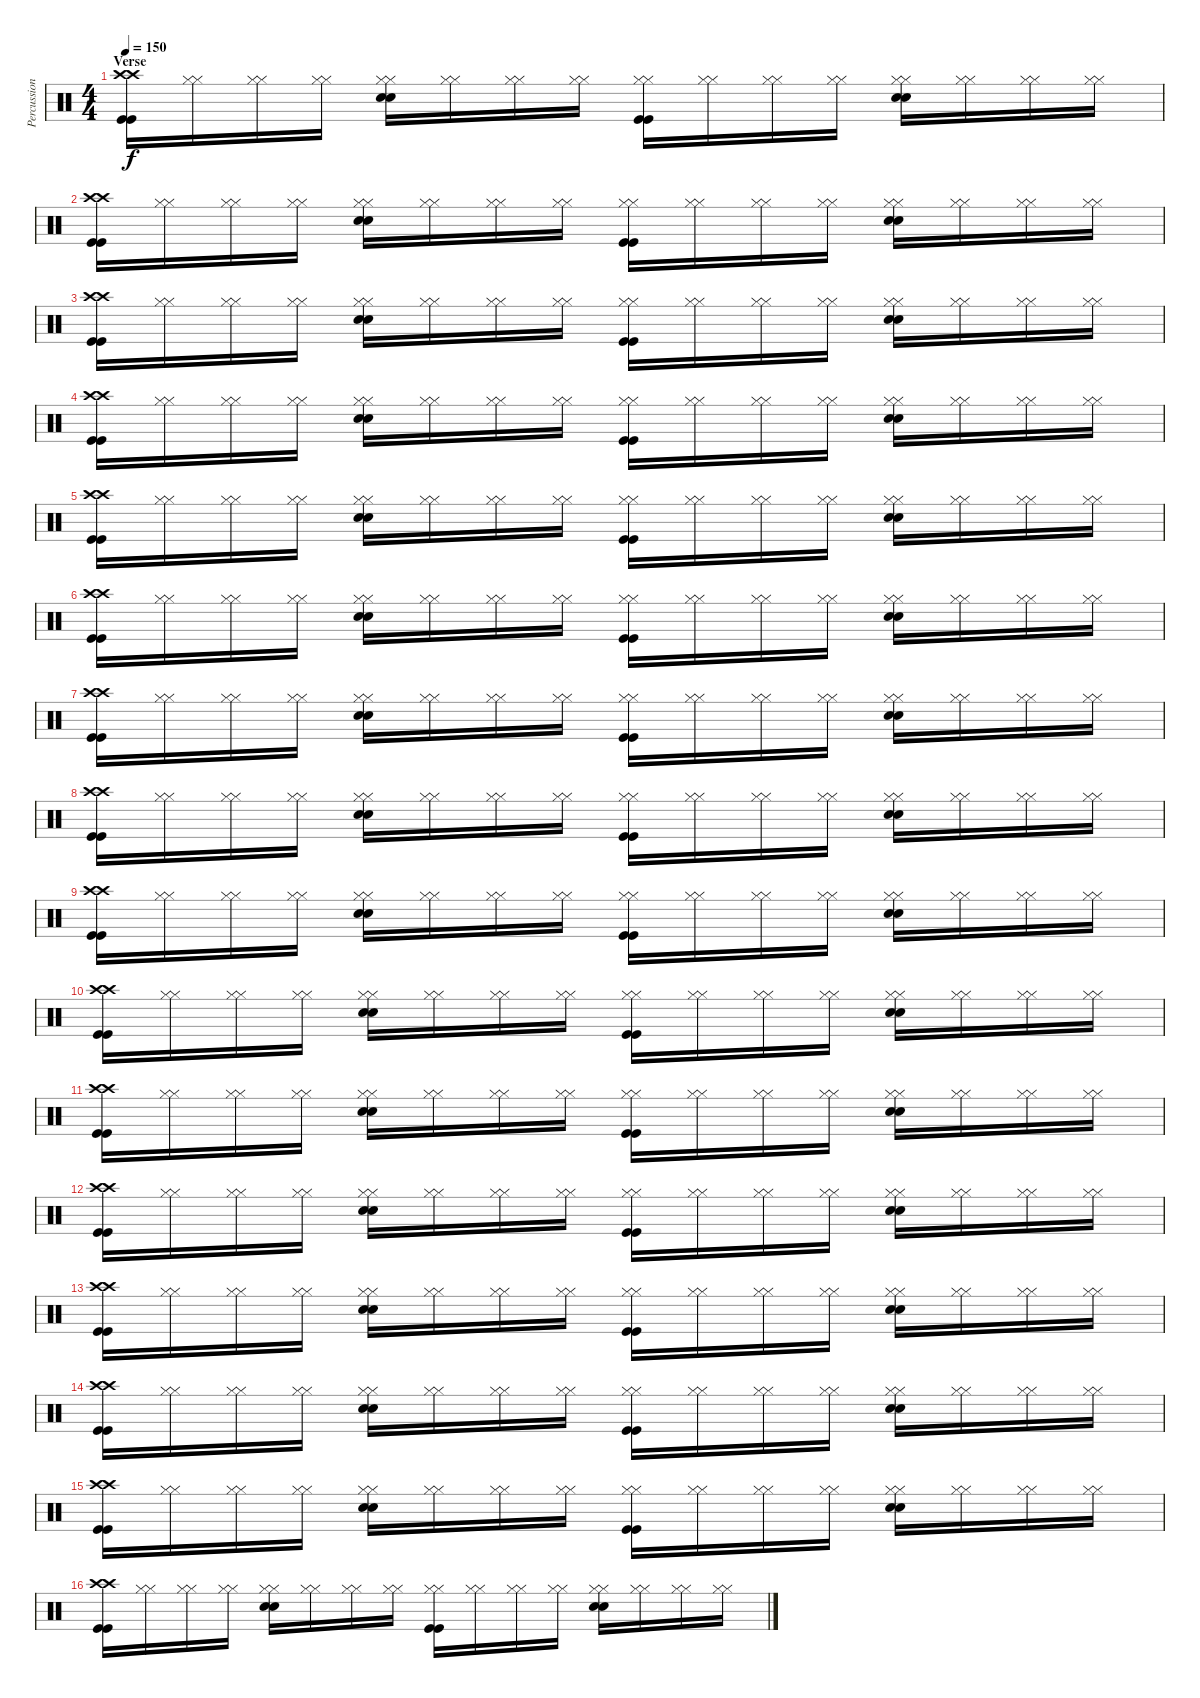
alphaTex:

\track ("Percussion" "Percussion") {instrument percussion bank 129}
\staff
\articulation defaults
\ts (4 4)
\section ("" "Verse")
\tempo 150
\clef neutral
\ks c
("Crash high (hit)" "Crash high (hit)" "Kick (hit)" "Kick (hit)").16{dy f} ("Hi-Hat (closed)" "Hi-Hat (closed)").16 ("Hi-Hat (closed)" "Hi-Hat (closed)").16 ("Hi-Hat (closed)" "Hi-Hat (closed)").16 ("Hi-Hat (closed)" "Hi-Hat (closed)" "Snare (hit) 2" "Snare (hit) 2").16 ("Hi-Hat (closed)" "Hi-Hat (closed)").16 ("Hi-Hat (closed)" "Hi-Hat (closed)").16 ("Hi-Hat (closed)" "Hi-Hat (closed)").16 ("Hi-Hat (closed)" "Hi-Hat (closed)" "Kick (hit)" "Kick (hit)").16 ("Hi-Hat (closed)" "Hi-Hat (closed)").16 ("Hi-Hat (closed)" "Hi-Hat (closed)").16 ("Hi-Hat (closed)" "Hi-Hat (closed)").16 ("Hi-Hat (closed)" "Hi-Hat (closed)" "Snare (hit) 2" "Snare (hit) 2").16 ("Hi-Hat (closed)" "Hi-Hat (closed)").16 ("Hi-Hat (closed)" "Hi-Hat (closed)").16 ("Hi-Hat (closed)" "Hi-Hat (closed)").16 |
("Crash high (hit)" "Crash high (hit)" "Kick (hit)" "Kick (hit)").16 ("Hi-Hat (closed)" "Hi-Hat (closed)").16 ("Hi-Hat (closed)" "Hi-Hat (closed)").16 ("Hi-Hat (closed)" "Hi-Hat (closed)").16 ("Hi-Hat (closed)" "Hi-Hat (closed)" "Snare (hit) 2" "Snare (hit) 2").16 ("Hi-Hat (closed)" "Hi-Hat (closed)").16 ("Hi-Hat (closed)" "Hi-Hat (closed)").16 ("Hi-Hat (closed)" "Hi-Hat (closed)").16 ("Hi-Hat (closed)" "Hi-Hat (closed)" "Kick (hit)" "Kick (hit)").16 ("Hi-Hat (closed)" "Hi-Hat (closed)").16 ("Hi-Hat (closed)" "Hi-Hat (closed)").16 ("Hi-Hat (closed)" "Hi-Hat (closed)").16 ("Hi-Hat (closed)" "Hi-Hat (closed)" "Snare (hit) 2" "Snare (hit) 2").16 ("Hi-Hat (closed)" "Hi-Hat (closed)").16 ("Hi-Hat (closed)" "Hi-Hat (closed)").16 ("Hi-Hat (closed)" "Hi-Hat (closed)").16 |
("Crash high (hit)" "Crash high (hit)" "Kick (hit)" "Kick (hit)").16 ("Hi-Hat (closed)" "Hi-Hat (closed)").16 ("Hi-Hat (closed)" "Hi-Hat (closed)").16 ("Hi-Hat (closed)" "Hi-Hat (closed)").16 ("Hi-Hat (closed)" "Hi-Hat (closed)" "Snare (hit) 2" "Snare (hit) 2").16 ("Hi-Hat (closed)" "Hi-Hat (closed)").16 ("Hi-Hat (closed)" "Hi-Hat (closed)").16 ("Hi-Hat (closed)" "Hi-Hat (closed)").16 ("Hi-Hat (closed)" "Hi-Hat (closed)" "Kick (hit)" "Kick (hit)").16 ("Hi-Hat (closed)" "Hi-Hat (closed)").16 ("Hi-Hat (closed)" "Hi-Hat (closed)").16 ("Hi-Hat (closed)" "Hi-Hat (closed)").16 ("Hi-Hat (closed)" "Hi-Hat (closed)" "Snare (hit) 2" "Snare (hit) 2").16 ("Hi-Hat (closed)" "Hi-Hat (closed)").16 ("Hi-Hat (closed)" "Hi-Hat (closed)").16 ("Hi-Hat (closed)" "Hi-Hat (closed)").16 |
("Crash high (hit)" "Crash high (hit)" "Kick (hit)" "Kick (hit)").16 ("Hi-Hat (closed)" "Hi-Hat (closed)").16 ("Hi-Hat (closed)" "Hi-Hat (closed)").16 ("Hi-Hat (closed)" "Hi-Hat (closed)").16 ("Hi-Hat (closed)" "Hi-Hat (closed)" "Snare (hit) 2" "Snare (hit) 2").16 ("Hi-Hat (closed)" "Hi-Hat (closed)").16 ("Hi-Hat (closed)" "Hi-Hat (closed)").16 ("Hi-Hat (closed)" "Hi-Hat (closed)").16 ("Hi-Hat (closed)" "Hi-Hat (closed)" "Kick (hit)" "Kick (hit)").16 ("Hi-Hat (closed)" "Hi-Hat (closed)").16 ("Hi-Hat (closed)" "Hi-Hat (closed)").16 ("Hi-Hat (closed)" "Hi-Hat (closed)").16 ("Hi-Hat (closed)" "Hi-Hat (closed)" "Snare (hit) 2" "Snare (hit) 2").16 ("Hi-Hat (closed)" "Hi-Hat (closed)").16 ("Hi-Hat (closed)" "Hi-Hat (closed)").16 ("Hi-Hat (closed)" "Hi-Hat (closed)").16 |
("Crash high (hit)" "Crash high (hit)" "Kick (hit)" "Kick (hit)").16 ("Hi-Hat (closed)" "Hi-Hat (closed)").16 ("Hi-Hat (closed)" "Hi-Hat (closed)").16 ("Hi-Hat (closed)" "Hi-Hat (closed)").16 ("Hi-Hat (closed)" "Hi-Hat (closed)" "Snare (hit) 2" "Snare (hit) 2").16 ("Hi-Hat (closed)" "Hi-Hat (closed)").16 ("Hi-Hat (closed)" "Hi-Hat (closed)").16 ("Hi-Hat (closed)" "Hi-Hat (closed)").16 ("Hi-Hat (closed)" "Hi-Hat (closed)" "Kick (hit)" "Kick (hit)").16 ("Hi-Hat (closed)" "Hi-Hat (closed)").16 ("Hi-Hat (closed)" "Hi-Hat (closed)").16 ("Hi-Hat (closed)" "Hi-Hat (closed)").16 ("Hi-Hat (closed)" "Hi-Hat (closed)" "Snare (hit) 2" "Snare (hit) 2").16 ("Hi-Hat (closed)" "Hi-Hat (closed)").16 ("Hi-Hat (closed)" "Hi-Hat (closed)").16 ("Hi-Hat (closed)" "Hi-Hat (closed)").16 |
("Crash high (hit)" "Crash high (hit)" "Kick (hit)" "Kick (hit)").16 ("Hi-Hat (closed)" "Hi-Hat (closed)").16 ("Hi-Hat (closed)" "Hi-Hat (closed)").16 ("Hi-Hat (closed)" "Hi-Hat (closed)").16 ("Hi-Hat (closed)" "Hi-Hat (closed)" "Snare (hit) 2" "Snare (hit) 2").16 ("Hi-Hat (closed)" "Hi-Hat (closed)").16 ("Hi-Hat (closed)" "Hi-Hat (closed)").16 ("Hi-Hat (closed)" "Hi-Hat (closed)").16 ("Hi-Hat (closed)" "Hi-Hat (closed)" "Kick (hit)" "Kick (hit)").16 ("Hi-Hat (closed)" "Hi-Hat (closed)").16 ("Hi-Hat (closed)" "Hi-Hat (closed)").16 ("Hi-Hat (closed)" "Hi-Hat (closed)").16 ("Hi-Hat (closed)" "Hi-Hat (closed)" "Snare (hit) 2" "Snare (hit) 2").16 ("Hi-Hat (closed)" "Hi-Hat (closed)").16 ("Hi-Hat (closed)" "Hi-Hat (closed)").16 ("Hi-Hat (closed)" "Hi-Hat (closed)").16 |
("Crash high (hit)" "Crash high (hit)" "Kick (hit)" "Kick (hit)").16 ("Hi-Hat (closed)" "Hi-Hat (closed)").16 ("Hi-Hat (closed)" "Hi-Hat (closed)").16 ("Hi-Hat (closed)" "Hi-Hat (closed)").16 ("Hi-Hat (closed)" "Hi-Hat (closed)" "Snare (hit) 2" "Snare (hit) 2").16 ("Hi-Hat (closed)" "Hi-Hat (closed)").16 ("Hi-Hat (closed)" "Hi-Hat (closed)").16 ("Hi-Hat (closed)" "Hi-Hat (closed)").16 ("Hi-Hat (closed)" "Hi-Hat (closed)" "Kick (hit)" "Kick (hit)").16 ("Hi-Hat (closed)" "Hi-Hat (closed)").16 ("Hi-Hat (closed)" "Hi-Hat (closed)").16 ("Hi-Hat (closed)" "Hi-Hat (closed)").16 ("Hi-Hat (closed)" "Hi-Hat (closed)" "Snare (hit) 2" "Snare (hit) 2").16 ("Hi-Hat (closed)" "Hi-Hat (closed)").16 ("Hi-Hat (closed)" "Hi-Hat (closed)").16 ("Hi-Hat (closed)" "Hi-Hat (closed)").16 |
("Crash high (hit)" "Crash high (hit)" "Kick (hit)" "Kick (hit)").16 ("Hi-Hat (closed)" "Hi-Hat (closed)").16 ("Hi-Hat (closed)" "Hi-Hat (closed)").16 ("Hi-Hat (closed)" "Hi-Hat (closed)").16 ("Hi-Hat (closed)" "Hi-Hat (closed)" "Snare (hit) 2" "Snare (hit) 2").16 ("Hi-Hat (closed)" "Hi-Hat (closed)").16 ("Hi-Hat (closed)" "Hi-Hat (closed)").16 ("Hi-Hat (closed)" "Hi-Hat (closed)").16 ("Hi-Hat (closed)" "Hi-Hat (closed)" "Kick (hit)" "Kick (hit)").16 ("Hi-Hat (closed)" "Hi-Hat (closed)").16 ("Hi-Hat (closed)" "Hi-Hat (closed)").16 ("Hi-Hat (closed)" "Hi-Hat (closed)").16 ("Hi-Hat (closed)" "Hi-Hat (closed)" "Snare (hit) 2" "Snare (hit) 2").16 ("Hi-Hat (closed)" "Hi-Hat (closed)").16 ("Hi-Hat (closed)" "Hi-Hat (closed)").16 ("Hi-Hat (closed)" "Hi-Hat (closed)").16 |
("Crash high (hit)" "Crash high (hit)" "Kick (hit)" "Kick (hit)").16 ("Hi-Hat (closed)" "Hi-Hat (closed)").16 ("Hi-Hat (closed)" "Hi-Hat (closed)").16 ("Hi-Hat (closed)" "Hi-Hat (closed)").16 ("Hi-Hat (closed)" "Hi-Hat (closed)" "Snare (hit) 2" "Snare (hit) 2").16 ("Hi-Hat (closed)" "Hi-Hat (closed)").16 ("Hi-Hat (closed)" "Hi-Hat (closed)").16 ("Hi-Hat (closed)" "Hi-Hat (closed)").16 ("Hi-Hat (closed)" "Hi-Hat (closed)" "Kick (hit)" "Kick (hit)").16 ("Hi-Hat (closed)" "Hi-Hat (closed)").16 ("Hi-Hat (closed)" "Hi-Hat (closed)").16 ("Hi-Hat (closed)" "Hi-Hat (closed)").16 ("Hi-Hat (closed)" "Hi-Hat (closed)" "Snare (hit) 2" "Snare (hit) 2").16 ("Hi-Hat (closed)" "Hi-Hat (closed)").16 ("Hi-Hat (closed)" "Hi-Hat (closed)").16 ("Hi-Hat (closed)" "Hi-Hat (closed)").16 |
("Crash high (hit)" "Crash high (hit)" "Kick (hit)" "Kick (hit)").16 ("Hi-Hat (closed)" "Hi-Hat (closed)").16 ("Hi-Hat (closed)" "Hi-Hat (closed)").16 ("Hi-Hat (closed)" "Hi-Hat (closed)").16 ("Hi-Hat (closed)" "Hi-Hat (closed)" "Snare (hit) 2" "Snare (hit) 2").16 ("Hi-Hat (closed)" "Hi-Hat (closed)").16 ("Hi-Hat (closed)" "Hi-Hat (closed)").16 ("Hi-Hat (closed)" "Hi-Hat (closed)").16 ("Hi-Hat (closed)" "Hi-Hat (closed)" "Kick (hit)" "Kick (hit)").16 ("Hi-Hat (closed)" "Hi-Hat (closed)").16 ("Hi-Hat (closed)" "Hi-Hat (closed)").16 ("Hi-Hat (closed)" "Hi-Hat (closed)").16 ("Hi-Hat (closed)" "Hi-Hat (closed)" "Snare (hit) 2" "Snare (hit) 2").16 ("Hi-Hat (closed)" "Hi-Hat (closed)").16 ("Hi-Hat (closed)" "Hi-Hat (closed)").16 ("Hi-Hat (closed)" "Hi-Hat (closed)").16 |
("Crash high (hit)" "Crash high (hit)" "Kick (hit)" "Kick (hit)").16 ("Hi-Hat (closed)" "Hi-Hat (closed)").16 ("Hi-Hat (closed)" "Hi-Hat (closed)").16 ("Hi-Hat (closed)" "Hi-Hat (closed)").16 ("Hi-Hat (closed)" "Hi-Hat (closed)" "Snare (hit) 2" "Snare (hit) 2").16 ("Hi-Hat (closed)" "Hi-Hat (closed)").16 ("Hi-Hat (closed)" "Hi-Hat (closed)").16 ("Hi-Hat (closed)" "Hi-Hat (closed)").16 ("Hi-Hat (closed)" "Hi-Hat (closed)" "Kick (hit)" "Kick (hit)").16 ("Hi-Hat (closed)" "Hi-Hat (closed)").16 ("Hi-Hat (closed)" "Hi-Hat (closed)").16 ("Hi-Hat (closed)" "Hi-Hat (closed)").16 ("Hi-Hat (closed)" "Hi-Hat (closed)" "Snare (hit) 2" "Snare (hit) 2").16 ("Hi-Hat (closed)" "Hi-Hat (closed)").16 ("Hi-Hat (closed)" "Hi-Hat (closed)").16 ("Hi-Hat (closed)" "Hi-Hat (closed)").16 |
("Crash high (hit)" "Crash high (hit)" "Kick (hit)" "Kick (hit)").16 ("Hi-Hat (closed)" "Hi-Hat (closed)").16 ("Hi-Hat (closed)" "Hi-Hat (closed)").16 ("Hi-Hat (closed)" "Hi-Hat (closed)").16 ("Hi-Hat (closed)" "Hi-Hat (closed)" "Snare (hit) 2" "Snare (hit) 2").16 ("Hi-Hat (closed)" "Hi-Hat (closed)").16 ("Hi-Hat (closed)" "Hi-Hat (closed)").16 ("Hi-Hat (closed)" "Hi-Hat (closed)").16 ("Hi-Hat (closed)" "Hi-Hat (closed)" "Kick (hit)" "Kick (hit)").16 ("Hi-Hat (closed)" "Hi-Hat (closed)").16 ("Hi-Hat (closed)" "Hi-Hat (closed)").16 ("Hi-Hat (closed)" "Hi-Hat (closed)").16 ("Hi-Hat (closed)" "Hi-Hat (closed)" "Snare (hit) 2" "Snare (hit) 2").16 ("Hi-Hat (closed)" "Hi-Hat (closed)").16 ("Hi-Hat (closed)" "Hi-Hat (closed)").16 ("Hi-Hat (closed)" "Hi-Hat (closed)").16 |
("Crash high (hit)" "Crash high (hit)" "Kick (hit)" "Kick (hit)").16 ("Hi-Hat (closed)" "Hi-Hat (closed)").16 ("Hi-Hat (closed)" "Hi-Hat (closed)").16 ("Hi-Hat (closed)" "Hi-Hat (closed)").16 ("Hi-Hat (closed)" "Hi-Hat (closed)" "Snare (hit) 2" "Snare (hit) 2").16 ("Hi-Hat (closed)" "Hi-Hat (closed)").16 ("Hi-Hat (closed)" "Hi-Hat (closed)").16 ("Hi-Hat (closed)" "Hi-Hat (closed)").16 ("Hi-Hat (closed)" "Hi-Hat (closed)" "Kick (hit)" "Kick (hit)").16 ("Hi-Hat (closed)" "Hi-Hat (closed)").16 ("Hi-Hat (closed)" "Hi-Hat (closed)").16 ("Hi-Hat (closed)" "Hi-Hat (closed)").16 ("Hi-Hat (closed)" "Hi-Hat (closed)" "Snare (hit) 2" "Snare (hit) 2").16 ("Hi-Hat (closed)" "Hi-Hat (closed)").16 ("Hi-Hat (closed)" "Hi-Hat (closed)").16 ("Hi-Hat (closed)" "Hi-Hat (closed)").16 |
("Crash high (hit)" "Crash high (hit)" "Kick (hit)" "Kick (hit)").16 ("Hi-Hat (closed)" "Hi-Hat (closed)").16 ("Hi-Hat (closed)" "Hi-Hat (closed)").16 ("Hi-Hat (closed)" "Hi-Hat (closed)").16 ("Hi-Hat (closed)" "Hi-Hat (closed)" "Snare (hit) 2" "Snare (hit) 2").16 ("Hi-Hat (closed)" "Hi-Hat (closed)").16 ("Hi-Hat (closed)" "Hi-Hat (closed)").16 ("Hi-Hat (closed)" "Hi-Hat (closed)").16 ("Hi-Hat (closed)" "Hi-Hat (closed)" "Kick (hit)" "Kick (hit)").16 ("Hi-Hat (closed)" "Hi-Hat (closed)").16 ("Hi-Hat (closed)" "Hi-Hat (closed)").16 ("Hi-Hat (closed)" "Hi-Hat (closed)").16 ("Hi-Hat (closed)" "Hi-Hat (closed)" "Snare (hit) 2" "Snare (hit) 2").16 ("Hi-Hat (closed)" "Hi-Hat (closed)").16 ("Hi-Hat (closed)" "Hi-Hat (closed)").16 ("Hi-Hat (closed)" "Hi-Hat (closed)").16 |
("Crash high (hit)" "Crash high (hit)" "Kick (hit)" "Kick (hit)").16 ("Hi-Hat (closed)" "Hi-Hat (closed)").16 ("Hi-Hat (closed)" "Hi-Hat (closed)").16 ("Hi-Hat (closed)" "Hi-Hat (closed)").16 ("Hi-Hat (closed)" "Hi-Hat (closed)" "Snare (hit) 2" "Snare (hit) 2").16 ("Hi-Hat (closed)" "Hi-Hat (closed)").16 ("Hi-Hat (closed)" "Hi-Hat (closed)").16 ("Hi-Hat (closed)" "Hi-Hat (closed)").16 ("Hi-Hat (closed)" "Hi-Hat (closed)" "Kick (hit)" "Kick (hit)").16 ("Hi-Hat (closed)" "Hi-Hat (closed)").16 ("Hi-Hat (closed)" "Hi-Hat (closed)").16 ("Hi-Hat (closed)" "Hi-Hat (closed)").16 ("Hi-Hat (closed)" "Hi-Hat (closed)" "Snare (hit) 2" "Snare (hit) 2").16 ("Hi-Hat (closed)" "Hi-Hat (closed)").16 ("Hi-Hat (closed)" "Hi-Hat (closed)").16 ("Hi-Hat (closed)" "Hi-Hat (closed)").16 |
("Crash high (hit)" "Crash high (hit)" "Kick (hit)" "Kick (hit)").16 ("Hi-Hat (closed)" "Hi-Hat (closed)").16 ("Hi-Hat (closed)" "Hi-Hat (closed)").16 ("Hi-Hat (closed)" "Hi-Hat (closed)").16 ("Hi-Hat (closed)" "Hi-Hat (closed)" "Snare (hit) 2" "Snare (hit) 2").16 ("Hi-Hat (closed)" "Hi-Hat (closed)").16 ("Hi-Hat (closed)" "Hi-Hat (closed)").16 ("Hi-Hat (closed)" "Hi-Hat (closed)").16 ("Hi-Hat (closed)" "Hi-Hat (closed)" "Kick (hit)" "Kick (hit)").16 ("Hi-Hat (closed)" "Hi-Hat (closed)").16 ("Hi-Hat (closed)" "Hi-Hat (closed)").16 ("Hi-Hat (closed)" "Hi-Hat (closed)").16 ("Hi-Hat (closed)" "Hi-Hat (closed)" "Snare (hit) 2" "Snare (hit) 2").16 ("Hi-Hat (closed)" "Hi-Hat (closed)").16 ("Hi-Hat (closed)" "Hi-Hat (closed)").16 ("Hi-Hat (closed)" "Hi-Hat (closed)").16
